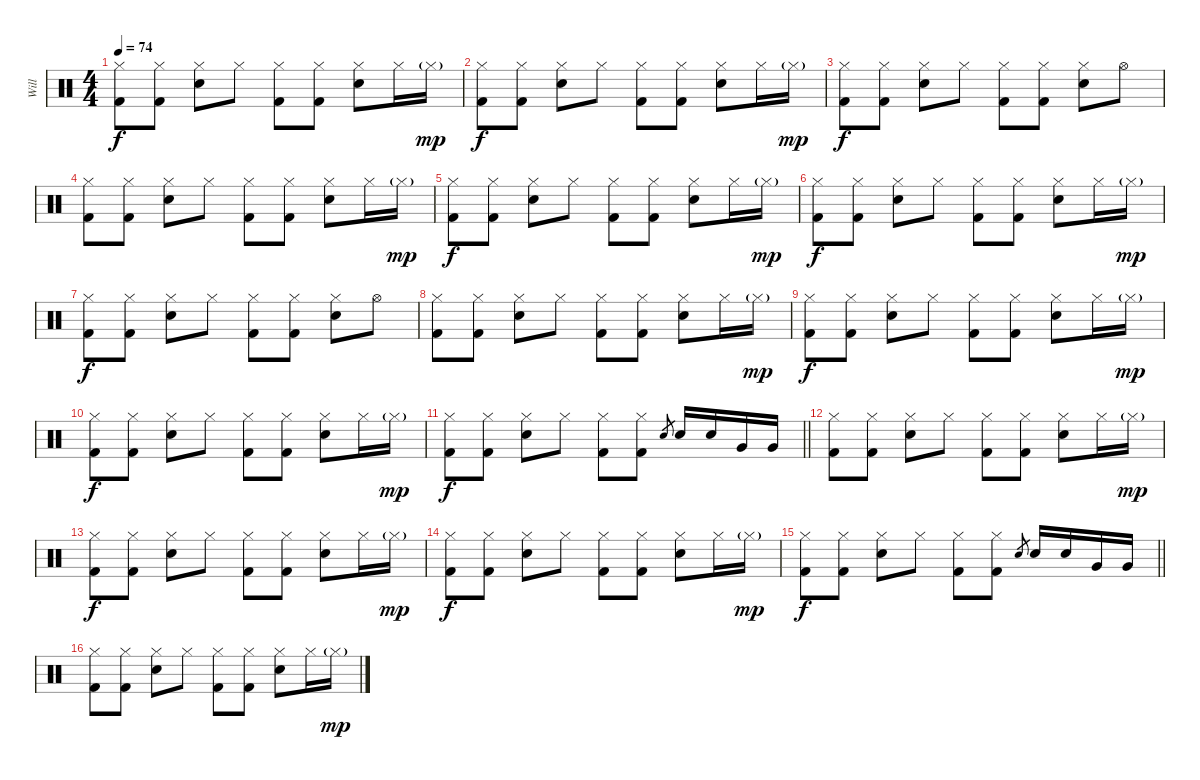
\track ("Will" "Will") {instrument percussion}
\staff {score}
\articulation defaults
\ts (4 4)
\tempo 74
\clef neutral
\ks c
("Hi-Hat (closed)" "Kick (hit) 2").8{dy f} ("Hi-Hat (closed)" "Kick (hit) 2").8 ("Hi-Hat (closed)" "Electric Snare (hit)").8 "Hi-Hat (closed)".8 ("Hi-Hat (closed)" "Kick (hit) 2").8 ("Hi-Hat (closed)" "Kick (hit) 2").8 ("Hi-Hat (closed)" "Electric Snare (hit)").8 "Hi-Hat (closed)".16 "Hi-Hat (closed)"{g}.16{dy mp} |
("Hi-Hat (closed)" "Kick (hit) 2").8{dy f} ("Hi-Hat (closed)" "Kick (hit) 2").8 ("Hi-Hat (closed)" "Electric Snare (hit)").8 "Hi-Hat (closed)".8 ("Hi-Hat (closed)" "Kick (hit) 2").8 ("Hi-Hat (closed)" "Kick (hit) 2").8 ("Hi-Hat (closed)" "Electric Snare (hit)").8 "Hi-Hat (closed)".16 "Hi-Hat (closed)"{g}.16{dy mp} |
("Hi-Hat (closed)" "Kick (hit) 2").8{dy f} ("Hi-Hat (closed)" "Kick (hit) 2").8 ("Hi-Hat (closed)" "Electric Snare (hit)").8 "Hi-Hat (closed)".8 ("Hi-Hat (closed)" "Kick (hit) 2").8 ("Hi-Hat (closed)" "Kick (hit) 2").8 ("Hi-Hat (closed)" "Electric Snare (hit)").8 "Hi-Hat (open)".8 |
("Hi-Hat (closed)" "Kick (hit) 2").8 ("Hi-Hat (closed)" "Kick (hit) 2").8 ("Hi-Hat (closed)" "Electric Snare (hit)").8 "Hi-Hat (closed)".8 ("Hi-Hat (closed)" "Kick (hit) 2").8 ("Hi-Hat (closed)" "Kick (hit) 2").8 ("Hi-Hat (closed)" "Electric Snare (hit)").8 "Hi-Hat (closed)".16 "Hi-Hat (closed)"{g}.16{dy mp} |
("Hi-Hat (closed)" "Kick (hit) 2").8{dy f} ("Hi-Hat (closed)" "Kick (hit) 2").8 ("Hi-Hat (closed)" "Electric Snare (hit)").8 "Hi-Hat (closed)".8 ("Hi-Hat (closed)" "Kick (hit) 2").8 ("Hi-Hat (closed)" "Kick (hit) 2").8 ("Hi-Hat (closed)" "Electric Snare (hit)").8 "Hi-Hat (closed)".16 "Hi-Hat (closed)"{g}.16{dy mp} |
("Hi-Hat (closed)" "Kick (hit) 2").8{dy f} ("Hi-Hat (closed)" "Kick (hit) 2").8 ("Hi-Hat (closed)" "Electric Snare (hit)").8 "Hi-Hat (closed)".8 ("Hi-Hat (closed)" "Kick (hit) 2").8 ("Hi-Hat (closed)" "Kick (hit) 2").8 ("Hi-Hat (closed)" "Electric Snare (hit)").8 "Hi-Hat (closed)".16 "Hi-Hat (closed)"{g}.16{dy mp} |
("Hi-Hat (closed)" "Kick (hit) 2").8{dy f} ("Hi-Hat (closed)" "Kick (hit) 2").8 ("Hi-Hat (closed)" "Electric Snare (hit)").8 "Hi-Hat (closed)".8 ("Hi-Hat (closed)" "Kick (hit) 2").8 ("Hi-Hat (closed)" "Kick (hit) 2").8 ("Hi-Hat (closed)" "Electric Snare (hit)").8 "Hi-Hat (open)".8 |
("Hi-Hat (closed)" "Kick (hit) 2").8 ("Hi-Hat (closed)" "Kick (hit) 2").8 ("Hi-Hat (closed)" "Electric Snare (hit)").8 "Hi-Hat (closed)".8 ("Hi-Hat (closed)" "Kick (hit) 2").8 ("Hi-Hat (closed)" "Kick (hit) 2").8 ("Hi-Hat (closed)" "Electric Snare (hit)").8 "Hi-Hat (closed)".16 "Hi-Hat (closed)"{g}.16{dy mp} |
("Hi-Hat (closed)" "Kick (hit) 2").8{dy f} ("Hi-Hat (closed)" "Kick (hit) 2").8 ("Hi-Hat (closed)" "Electric Snare (hit)").8 "Hi-Hat (closed)".8 ("Hi-Hat (closed)" "Kick (hit) 2").8 ("Hi-Hat (closed)" "Kick (hit) 2").8 ("Hi-Hat (closed)" "Electric Snare (hit)").8 "Hi-Hat (closed)".16 "Hi-Hat (closed)"{g}.16{dy mp} |
("Hi-Hat (closed)" "Kick (hit) 2").8{dy f} ("Hi-Hat (closed)" "Kick (hit) 2").8 ("Hi-Hat (closed)" "Electric Snare (hit)").8 "Hi-Hat (closed)".8 ("Hi-Hat (closed)" "Kick (hit) 2").8 ("Hi-Hat (closed)" "Kick (hit) 2").8 ("Hi-Hat (closed)" "Electric Snare (hit)").8 "Hi-Hat (closed)".16 "Hi-Hat (closed)"{g}.16{dy mp} |
\barLineRight lightlight
("Hi-Hat (closed)" "Kick (hit) 2").8{dy f} ("Hi-Hat (closed)" "Kick (hit) 2").8 ("Hi-Hat (closed)" "Electric Snare (hit)").8 "Hi-Hat (closed)".8 ("Hi-Hat (closed)" "Kick (hit) 2").8 ("Hi-Hat (closed)" "Kick (hit) 2").8 "Snare (hit) 2".8{gr} "Electric Snare (hit)".16 "Electric Snare (hit)".16 "Very Low Tom (hit)".16 "Very Low Tom (hit)".16 |
("Hi-Hat (closed)" "Kick (hit) 2").8 ("Hi-Hat (closed)" "Kick (hit) 2").8 ("Hi-Hat (closed)" "Electric Snare (hit)").8 "Hi-Hat (closed)".8 ("Hi-Hat (closed)" "Kick (hit) 2").8 ("Hi-Hat (closed)" "Kick (hit) 2").8 ("Hi-Hat (closed)" "Electric Snare (hit)").8 "Hi-Hat (closed)".16 "Hi-Hat (closed)"{g}.16{dy mp} |
("Hi-Hat (closed)" "Kick (hit) 2").8{dy f} ("Hi-Hat (closed)" "Kick (hit) 2").8 ("Hi-Hat (closed)" "Electric Snare (hit)").8 "Hi-Hat (closed)".8 ("Hi-Hat (closed)" "Kick (hit) 2").8 ("Hi-Hat (closed)" "Kick (hit) 2").8 ("Hi-Hat (closed)" "Electric Snare (hit)").8 "Hi-Hat (closed)".16 "Hi-Hat (closed)"{g}.16{dy mp} |
("Hi-Hat (closed)" "Kick (hit) 2").8{dy f} ("Hi-Hat (closed)" "Kick (hit) 2").8 ("Hi-Hat (closed)" "Electric Snare (hit)").8 "Hi-Hat (closed)".8 ("Hi-Hat (closed)" "Kick (hit) 2").8 ("Hi-Hat (closed)" "Kick (hit) 2").8 ("Hi-Hat (closed)" "Electric Snare (hit)").8 "Hi-Hat (closed)".16 "Hi-Hat (closed)"{g}.16{dy mp} |
\barLineRight lightlight
("Hi-Hat (closed)" "Kick (hit) 2").8{dy f} ("Hi-Hat (closed)" "Kick (hit) 2").8 ("Hi-Hat (closed)" "Electric Snare (hit)").8 "Hi-Hat (closed)".8 ("Hi-Hat (closed)" "Kick (hit) 2").8 ("Hi-Hat (closed)" "Kick (hit) 2").8 "Snare (hit) 2".8{gr} "Electric Snare (hit)".16 "Electric Snare (hit)".16 "Very Low Tom (hit)".16 "Very Low Tom (hit)".16 |
("Hi-Hat (closed)" "Kick (hit) 2").8 ("Hi-Hat (closed)" "Kick (hit) 2").8 ("Hi-Hat (closed)" "Electric Snare (hit)").8 "Hi-Hat (closed)".8 ("Hi-Hat (closed)" "Kick (hit) 2").8 ("Hi-Hat (closed)" "Kick (hit) 2").8 ("Hi-Hat (closed)" "Electric Snare (hit)").8 "Hi-Hat (closed)".16 "Hi-Hat (closed)"{g}.16{dy mp}
